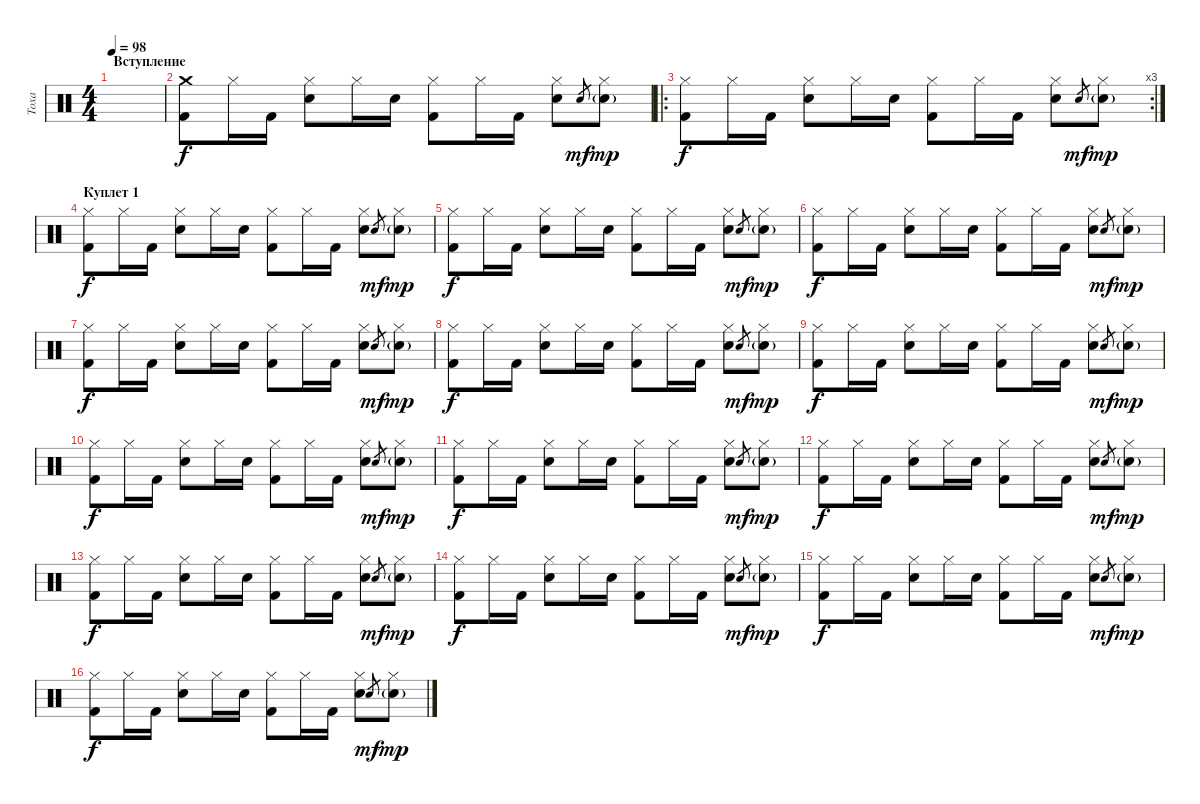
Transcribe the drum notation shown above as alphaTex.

\track ("Toxa" "Toxa") {instrument percussion}
\staff {score}
\articulation defaults
\ts (4 4)
\section ("" "Вступление")
\tempo 98
\clef neutral
\ks c
|
("Crash medium (hit)" "Kick (hit) 2").8 "Hi-Hat (closed)".16 "Kick (hit) 2".16 ("Hi-Hat (closed)" "Electric Snare (hit)").8 "Hi-Hat (closed)".16 "Electric Snare (hit)".16 ("Hi-Hat (closed)" "Kick (hit) 2").8 "Hi-Hat (closed)".16 "Kick (hit) 2".16 ("Hi-Hat (closed)" "Electric Snare (hit)").8 "Electric Snare (hit)".8{gr dy mf} ("Hi-Hat (closed)" "Electric Snare (hit)"{g}).8{dy mp} |
\ro
\rc 3
("Hi-Hat (closed)" "Kick (hit) 2").8{dy f} "Hi-Hat (closed)".16 "Kick (hit) 2".16 ("Hi-Hat (closed)" "Electric Snare (hit)").8 "Hi-Hat (closed)".16 "Electric Snare (hit)".16 ("Hi-Hat (closed)" "Kick (hit) 2").8 "Hi-Hat (closed)".16 "Kick (hit) 2".16 ("Hi-Hat (closed)" "Electric Snare (hit)").8 "Electric Snare (hit)".8{gr dy mf} ("Hi-Hat (closed)" "Electric Snare (hit)"{g}).8{dy mp} |
\section ("" "Куплет 1")
("Hi-Hat (closed)" "Kick (hit) 2").8{dy f} "Hi-Hat (closed)".16 "Kick (hit) 2".16 ("Hi-Hat (closed)" "Electric Snare (hit)").8 "Hi-Hat (closed)".16 "Electric Snare (hit)".16 ("Hi-Hat (closed)" "Kick (hit) 2").8 "Hi-Hat (closed)".16 "Kick (hit) 2".16 ("Hi-Hat (closed)" "Electric Snare (hit)").8 "Electric Snare (hit)".8{gr dy mf} ("Hi-Hat (closed)" "Electric Snare (hit)"{g}).8{dy mp} |
("Hi-Hat (closed)" "Kick (hit) 2").8{dy f} "Hi-Hat (closed)".16 "Kick (hit) 2".16 ("Hi-Hat (closed)" "Electric Snare (hit)").8 "Hi-Hat (closed)".16 "Electric Snare (hit)".16 ("Hi-Hat (closed)" "Kick (hit) 2").8 "Hi-Hat (closed)".16 "Kick (hit) 2".16 ("Hi-Hat (closed)" "Electric Snare (hit)").8 "Electric Snare (hit)".8{gr dy mf} ("Hi-Hat (closed)" "Electric Snare (hit)"{g}).8{dy mp} |
("Hi-Hat (closed)" "Kick (hit) 2").8{dy f} "Hi-Hat (closed)".16 "Kick (hit) 2".16 ("Hi-Hat (closed)" "Electric Snare (hit)").8 "Hi-Hat (closed)".16 "Electric Snare (hit)".16 ("Hi-Hat (closed)" "Kick (hit) 2").8 "Hi-Hat (closed)".16 "Kick (hit) 2".16 ("Hi-Hat (closed)" "Electric Snare (hit)").8 "Electric Snare (hit)".8{gr dy mf} ("Hi-Hat (closed)" "Electric Snare (hit)"{g}).8{dy mp} |
("Hi-Hat (closed)" "Kick (hit) 2").8{dy f} "Hi-Hat (closed)".16 "Kick (hit) 2".16 ("Hi-Hat (closed)" "Electric Snare (hit)").8 "Hi-Hat (closed)".16 "Electric Snare (hit)".16 ("Hi-Hat (closed)" "Kick (hit) 2").8 "Hi-Hat (closed)".16 "Kick (hit) 2".16 ("Hi-Hat (closed)" "Electric Snare (hit)").8 "Electric Snare (hit)".8{gr dy mf} ("Hi-Hat (closed)" "Electric Snare (hit)"{g}).8{dy mp} |
("Hi-Hat (closed)" "Kick (hit) 2").8{dy f} "Hi-Hat (closed)".16 "Kick (hit) 2".16 ("Hi-Hat (closed)" "Electric Snare (hit)").8 "Hi-Hat (closed)".16 "Electric Snare (hit)".16 ("Hi-Hat (closed)" "Kick (hit) 2").8 "Hi-Hat (closed)".16 "Kick (hit) 2".16 ("Hi-Hat (closed)" "Electric Snare (hit)").8 "Electric Snare (hit)".8{gr dy mf} ("Hi-Hat (closed)" "Electric Snare (hit)"{g}).8{dy mp} |
("Hi-Hat (closed)" "Kick (hit) 2").8{dy f} "Hi-Hat (closed)".16 "Kick (hit) 2".16 ("Hi-Hat (closed)" "Electric Snare (hit)").8 "Hi-Hat (closed)".16 "Electric Snare (hit)".16 ("Hi-Hat (closed)" "Kick (hit) 2").8 "Hi-Hat (closed)".16 "Kick (hit) 2".16 ("Hi-Hat (closed)" "Electric Snare (hit)").8 "Electric Snare (hit)".8{gr dy mf} ("Hi-Hat (closed)" "Electric Snare (hit)"{g}).8{dy mp} |
("Hi-Hat (closed)" "Kick (hit) 2").8{dy f} "Hi-Hat (closed)".16 "Kick (hit) 2".16 ("Hi-Hat (closed)" "Electric Snare (hit)").8 "Hi-Hat (closed)".16 "Electric Snare (hit)".16 ("Hi-Hat (closed)" "Kick (hit) 2").8 "Hi-Hat (closed)".16 "Kick (hit) 2".16 ("Hi-Hat (closed)" "Electric Snare (hit)").8 "Electric Snare (hit)".8{gr dy mf} ("Hi-Hat (closed)" "Electric Snare (hit)"{g}).8{dy mp} |
("Hi-Hat (closed)" "Kick (hit) 2").8{dy f} "Hi-Hat (closed)".16 "Kick (hit) 2".16 ("Hi-Hat (closed)" "Electric Snare (hit)").8 "Hi-Hat (closed)".16 "Electric Snare (hit)".16 ("Hi-Hat (closed)" "Kick (hit) 2").8 "Hi-Hat (closed)".16 "Kick (hit) 2".16 ("Hi-Hat (closed)" "Electric Snare (hit)").8 "Electric Snare (hit)".8{gr dy mf} ("Hi-Hat (closed)" "Electric Snare (hit)"{g}).8{dy mp} |
("Hi-Hat (closed)" "Kick (hit) 2").8{dy f} "Hi-Hat (closed)".16 "Kick (hit) 2".16 ("Hi-Hat (closed)" "Electric Snare (hit)").8 "Hi-Hat (closed)".16 "Electric Snare (hit)".16 ("Hi-Hat (closed)" "Kick (hit) 2").8 "Hi-Hat (closed)".16 "Kick (hit) 2".16 ("Hi-Hat (closed)" "Electric Snare (hit)").8 "Electric Snare (hit)".8{gr dy mf} ("Hi-Hat (closed)" "Electric Snare (hit)"{g}).8{dy mp} |
("Hi-Hat (closed)" "Kick (hit) 2").8{dy f} "Hi-Hat (closed)".16 "Kick (hit) 2".16 ("Hi-Hat (closed)" "Electric Snare (hit)").8 "Hi-Hat (closed)".16 "Electric Snare (hit)".16 ("Hi-Hat (closed)" "Kick (hit) 2").8 "Hi-Hat (closed)".16 "Kick (hit) 2".16 ("Hi-Hat (closed)" "Electric Snare (hit)").8 "Electric Snare (hit)".8{gr dy mf} ("Hi-Hat (closed)" "Electric Snare (hit)"{g}).8{dy mp} |
("Hi-Hat (closed)" "Kick (hit) 2").8{dy f} "Hi-Hat (closed)".16 "Kick (hit) 2".16 ("Hi-Hat (closed)" "Electric Snare (hit)").8 "Hi-Hat (closed)".16 "Electric Snare (hit)".16 ("Hi-Hat (closed)" "Kick (hit) 2").8 "Hi-Hat (closed)".16 "Kick (hit) 2".16 ("Hi-Hat (closed)" "Electric Snare (hit)").8 "Electric Snare (hit)".8{gr dy mf} ("Hi-Hat (closed)" "Electric Snare (hit)"{g}).8{dy mp} |
("Hi-Hat (closed)" "Kick (hit) 2").8{dy f} "Hi-Hat (closed)".16 "Kick (hit) 2".16 ("Hi-Hat (closed)" "Electric Snare (hit)").8 "Hi-Hat (closed)".16 "Electric Snare (hit)".16 ("Hi-Hat (closed)" "Kick (hit) 2").8 "Hi-Hat (closed)".16 "Kick (hit) 2".16 ("Hi-Hat (closed)" "Electric Snare (hit)").8 "Electric Snare (hit)".8{gr dy mf} ("Hi-Hat (closed)" "Electric Snare (hit)"{g}).8{dy mp} |
("Hi-Hat (closed)" "Kick (hit) 2").8{dy f} "Hi-Hat (closed)".16 "Kick (hit) 2".16 ("Hi-Hat (closed)" "Electric Snare (hit)").8 "Hi-Hat (closed)".16 "Electric Snare (hit)".16 ("Hi-Hat (closed)" "Kick (hit) 2").8 "Hi-Hat (closed)".16 "Kick (hit) 2".16 ("Hi-Hat (closed)" "Electric Snare (hit)").8 "Electric Snare (hit)".8{gr dy mf} ("Hi-Hat (closed)" "Electric Snare (hit)"{g}).8{dy mp}
